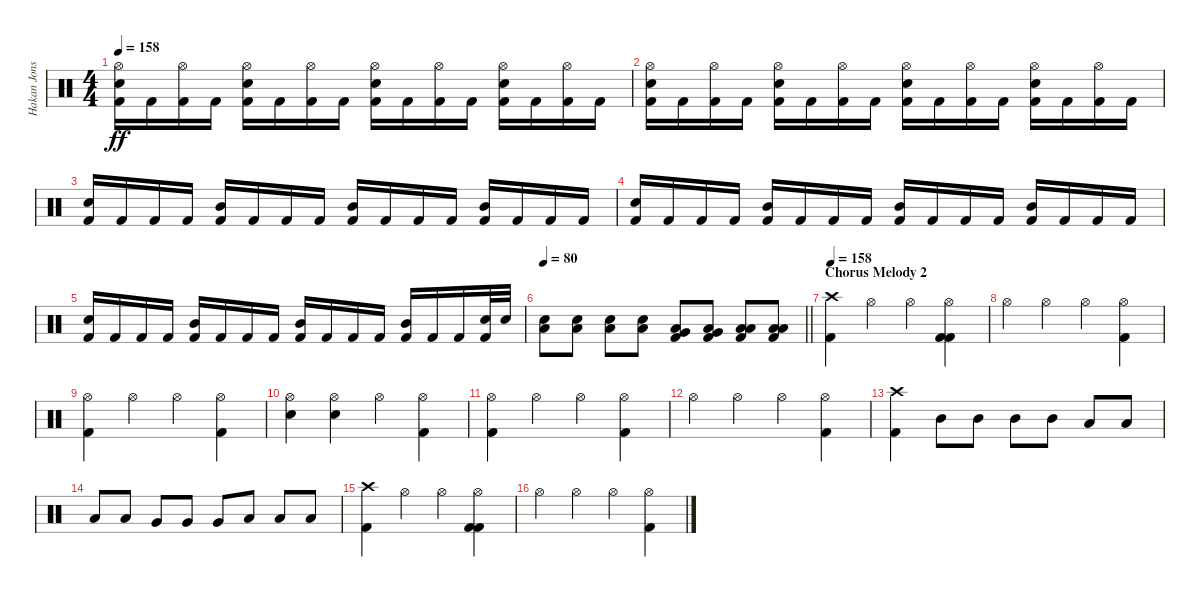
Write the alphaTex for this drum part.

\track ("Hakan Jonsson" "Hakan Jons") {instrument percussion}
\staff {score}
\articulation defaults
\ts (4 4)
\tempo 158
\clef neutral
\ks c
("Hi-Hat (open)" "Electric Snare (hit)" "Kick (hit) 2").16{dy ff} "Kick (hit) 2".16 ("Hi-Hat (open)" "Kick (hit) 2").16 "Kick (hit) 2".16 ("Hi-Hat (open)" "Electric Snare (hit)" "Kick (hit) 2").16 "Kick (hit) 2".16 ("Hi-Hat (open)" "Kick (hit) 2").16 "Kick (hit) 2".16 ("Hi-Hat (open)" "Electric Snare (hit)" "Kick (hit) 2").16 "Kick (hit) 2".16 ("Hi-Hat (open)" "Kick (hit) 2").16 "Kick (hit) 2".16 ("Hi-Hat (open)" "Electric Snare (hit)" "Kick (hit) 2").16 "Kick (hit) 2".16 ("Hi-Hat (open)" "Kick (hit) 2").16 "Kick (hit) 2".16 |
("Hi-Hat (open)" "Electric Snare (hit)" "Kick (hit) 2").16 "Kick (hit) 2".16 ("Hi-Hat (open)" "Kick (hit) 2").16 "Kick (hit) 2".16 ("Hi-Hat (open)" "Electric Snare (hit)" "Kick (hit) 2").16 "Kick (hit) 2".16 ("Hi-Hat (open)" "Kick (hit) 2").16 "Kick (hit) 2".16 ("Hi-Hat (open)" "Electric Snare (hit)" "Kick (hit) 2").16 "Kick (hit) 2".16 ("Hi-Hat (open)" "Kick (hit) 2").16 "Kick (hit) 2".16 ("Hi-Hat (open)" "Electric Snare (hit)" "Kick (hit) 2").16 "Kick (hit) 2".16 ("Hi-Hat (open)" "Kick (hit) 2").16 "Kick (hit) 2".16 |
("Electric Snare (hit)" "Kick (hit) 2").16 "Kick (hit) 2".16 "Kick (hit) 2".16 "Kick (hit) 2".16 ("Mid Tom (hit)" "Kick (hit) 2").16 "Kick (hit) 2".16 "Kick (hit) 2".16 "Kick (hit) 2".16 ("Mid Tom (hit)" "Kick (hit) 2").16 "Kick (hit) 2".16 "Kick (hit) 2".16 "Kick (hit) 2".16 ("Mid Tom (hit)" "Kick (hit) 2").16 "Kick (hit) 2".16 "Kick (hit) 2".16 "Kick (hit) 2".16 |
("Electric Snare (hit)" "Kick (hit) 2").16 "Kick (hit) 2".16 "Kick (hit) 2".16 "Kick (hit) 2".16 ("Mid Tom (hit)" "Kick (hit) 2").16 "Kick (hit) 2".16 "Kick (hit) 2".16 "Kick (hit) 2".16 ("Mid Tom (hit)" "Kick (hit) 2").16 "Kick (hit) 2".16 "Kick (hit) 2".16 "Kick (hit) 2".16 ("Mid Tom (hit)" "Kick (hit) 2").16 "Kick (hit) 2".16 "Kick (hit) 2".16 "Kick (hit) 2".16 |
("Electric Snare (hit)" "Kick (hit) 2").16 "Kick (hit) 2".16 "Kick (hit) 2".16 "Kick (hit) 2".16 ("Mid Tom (hit)" "Kick (hit) 2").16 "Kick (hit) 2".16 "Kick (hit) 2".16 "Kick (hit) 2".16 ("Mid Tom (hit)" "Kick (hit) 2").16 "Kick (hit) 2".16 "Kick (hit) 2".16 "Kick (hit) 2".16 ("Mid Tom (hit)" "Kick (hit) 2").16 "Kick (hit) 2".16 "Kick (hit) 2".16 ("Electric Snare (hit)" "Kick (hit) 2").32 "Electric Snare (hit)".32 |
\tempo 80
\barLineRight lightlight
("Low Tom (hit)" "Electric Snare (hit)").8 ("Low Tom (hit)" "Electric Snare (hit)").8 ("Low Tom (hit)" "Electric Snare (hit)").8 ("Low Tom (hit)" "Electric Snare (hit)").8 ("Low Tom (hit)" "Very Low Tom (hit)" "Kick (hit) 2").8 ("Low Tom (hit)" "Very Low Tom (hit)" "Kick (hit) 2").8 ("Low Tom (hit)" "Low Floor Tom (hit)" "Kick (hit) 2").8 ("Low Tom (hit)" "Low Floor Tom (hit)" "Kick (hit) 2").8 |
\section ("" "Chorus Melody 2")
\tempo 158
("Crash high (hit)" "Kick (hit) 2").4 "Hi-Hat (open)".4 "Hi-Hat (open)".4 ("Kick (hit) 2" "Hi-Hat (open)" "Kick (hit) 2").4 |
"Hi-Hat (open)".4 "Hi-Hat (open)".4 "Hi-Hat (open)".4 ("Hi-Hat (open)" "Kick (hit) 2").4 |
("Hi-Hat (open)" "Kick (hit) 2").4 "Hi-Hat (open)".4 "Hi-Hat (open)".4 ("Hi-Hat (open)" "Kick (hit) 2").4 |
("Hi-Hat (open)" "Electric Snare (hit)").4 ("Hi-Hat (open)" "Electric Snare (hit)").4 "Hi-Hat (open)".4 ("Hi-Hat (open)" "Kick (hit) 2").4 |
("Hi-Hat (open)" "Kick (hit) 2").4 "Hi-Hat (open)".4 "Hi-Hat (open)".4 ("Hi-Hat (open)" "Kick (hit) 2").4 |
"Hi-Hat (open)".4 "Hi-Hat (open)".4 "Hi-Hat (open)".4 ("Hi-Hat (open)" "Kick (hit) 2").4 |
("Crash high (hit)" "Kick (hit) 2").4 "Mid Tom (hit)".8 "Mid Tom (hit)".8 "Mid Tom (hit)".8 "Mid Tom (hit)".8 "Low Tom (hit)".8 "Low Tom (hit)".8 |
"Low Tom (hit)".8 "Low Tom (hit)".8 "Very Low Tom (hit)".8 "Very Low Tom (hit)".8 "Very Low Tom (hit)".8 "Low Floor Tom (hit)".8 "Low Floor Tom (hit)".8 "Low Floor Tom (hit)".8 |
("Crash high (hit)" "Kick (hit) 2").4 "Hi-Hat (open)".4 "Hi-Hat (open)".4 ("Kick (hit) 2" "Hi-Hat (open)" "Kick (hit) 2").4 |
"Hi-Hat (open)".4 "Hi-Hat (open)".4 "Hi-Hat (open)".4 ("Hi-Hat (open)" "Kick (hit) 2").4
